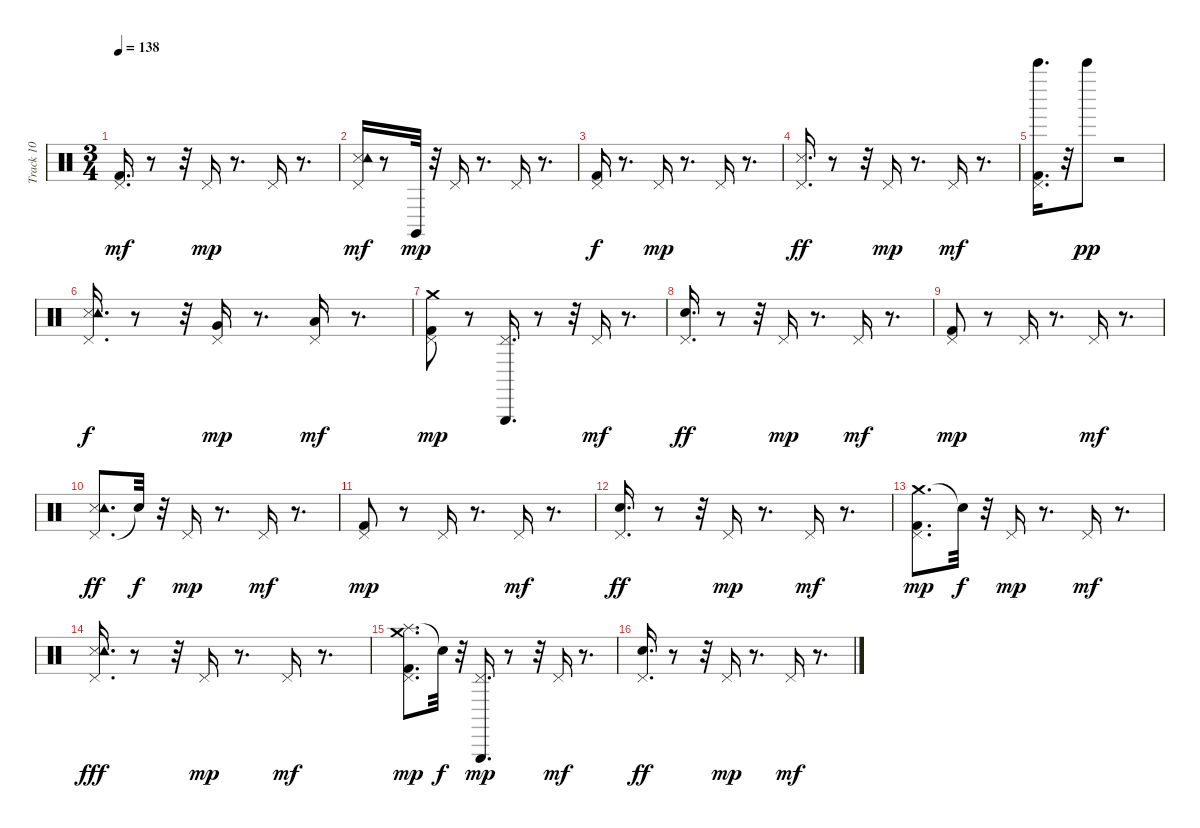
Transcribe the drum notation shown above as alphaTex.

\track ("Track 10" "Track 10") {instrument percussion}
\staff {score}
\articulation defaults
\ts (3 4)
\tempo 138
\clef neutral
\ks c
("Pedal Hi-Hat (hit)" "Kick (hit) 2").16{d dy mf} r.8 r.32 "Pedal Hi-Hat (hit)".16{dy mp} r.8{d} "Pedal Hi-Hat (hit)".16 r.8{d} |
("Pedal Hi-Hat (hit)" "Snare (side stick) 3" "Tambourine (hit)").16{dy mf} r.8 "Claves (hit)".32{dy mp} r.32 "Pedal Hi-Hat (hit)".16 r.8{d} "Pedal Hi-Hat (hit)".16 r.8{d} |
("Kick (hit) 2" "Pedal Hi-Hat (hit)").16{dy f} r.8{d} "Pedal Hi-Hat (hit)".16{dy mp} r.8{d} "Pedal Hi-Hat (hit)".16 r.8{d} |
("Snare (side stick) 3" "Pedal Hi-Hat (hit)").16{d dy ff} r.8 r.32 "Pedal Hi-Hat (hit)".16{dy mp} r.8{d} "Pedal Hi-Hat (hit)".16{dy mf} r.8{d} |
("Bell Tree (hit)" "Kick (hit) 2" "Pedal Hi-Hat (hit)").16{d} r.32 "Bell Tree (hit)".8{dy pp} r.2 |
("Pedal Hi-Hat (hit)" "Snare (side stick) 3" "Tambourine (hit)").16{d dy f} r.8 r.32 ("Pedal Hi-Hat (hit)" "Very Low Tom (hit)").16{dy mp} r.8{d} ("Pedal Hi-Hat (hit)" "Low Floor Tom (hit)").16{dy mf} r.8{d} |
("Pedal Hi-Hat (hit)" "Kick (hit) 2" "Crash medium (hit)").8{dy mp} r.8 ("Pedal Hi-Hat (hit)" "Triangle (hit)").16{d} r.8 r.32 "Pedal Hi-Hat (hit)".16{dy mf} r.8{d} |
("Pedal Hi-Hat (hit)" "Electric Snare (hit)").16{d dy ff} r.8 r.32 "Pedal Hi-Hat (hit)".16{dy mp} r.8{d} "Pedal Hi-Hat (hit)".16{dy mf} r.8{d} |
("Pedal Hi-Hat (hit)" "Kick (hit) 2").8{dy mp} r.8 "Pedal Hi-Hat (hit)".16 r.8{d} "Pedal Hi-Hat (hit)".16{dy mf} r.8{d} |
("Pedal Hi-Hat (hit)" "Snare (side stick) 3" "Tambourine (hit)").8{d dy ff} "Snare (hit)"{t}.32{dy f} r.32 "Pedal Hi-Hat (hit)".16{dy mp} r.8{d} "Pedal Hi-Hat (hit)".16{dy mf} r.8{d} |
("Pedal Hi-Hat (hit)" "Kick (hit) 2").8{dy mp} r.8 "Pedal Hi-Hat (hit)".16 r.8{d} "Pedal Hi-Hat (hit)".16{dy mf} r.8{d} |
("Pedal Hi-Hat (hit)" "Electric Snare (hit)").16{d dy ff} r.8 r.32 "Pedal Hi-Hat (hit)".16{dy mp} r.8{d} "Pedal Hi-Hat (hit)".16{dy mf} r.8{d} |
("Crash medium (hit)" "Pedal Hi-Hat (hit)" "Kick (hit) 2").8{d dy mp} "Snare (hit)"{t}.32{dy f} r.32 "Pedal Hi-Hat (hit)".16{dy mp} r.8{d} "Pedal Hi-Hat (hit)".16{dy mf} r.8{d} |
("Pedal Hi-Hat (hit)" "Snare (side stick) 3" "Tambourine (hit)").16{d dy fff} r.8 r.32 "Pedal Hi-Hat (hit)".16{dy mp} r.8{d} "Pedal Hi-Hat (hit)".16{dy mf} r.8{d} |
("Splash (hit)" "Pedal Hi-Hat (hit)" "Kick (hit) 2" "Crash medium (hit)").8{d dy mp} "Snare (hit)"{t}.32{dy f} r.32 ("Pedal Hi-Hat (hit)" "Triangle (hit)").16{d dy mp} r.8 r.32 "Pedal Hi-Hat (hit)".16{dy mf} r.8{d} |
("Pedal Hi-Hat (hit)" "Electric Snare (hit)").16{d dy ff} r.8 r.32 "Pedal Hi-Hat (hit)".16{dy mp} r.8{d} "Pedal Hi-Hat (hit)".16{dy mf} r.8{d}
